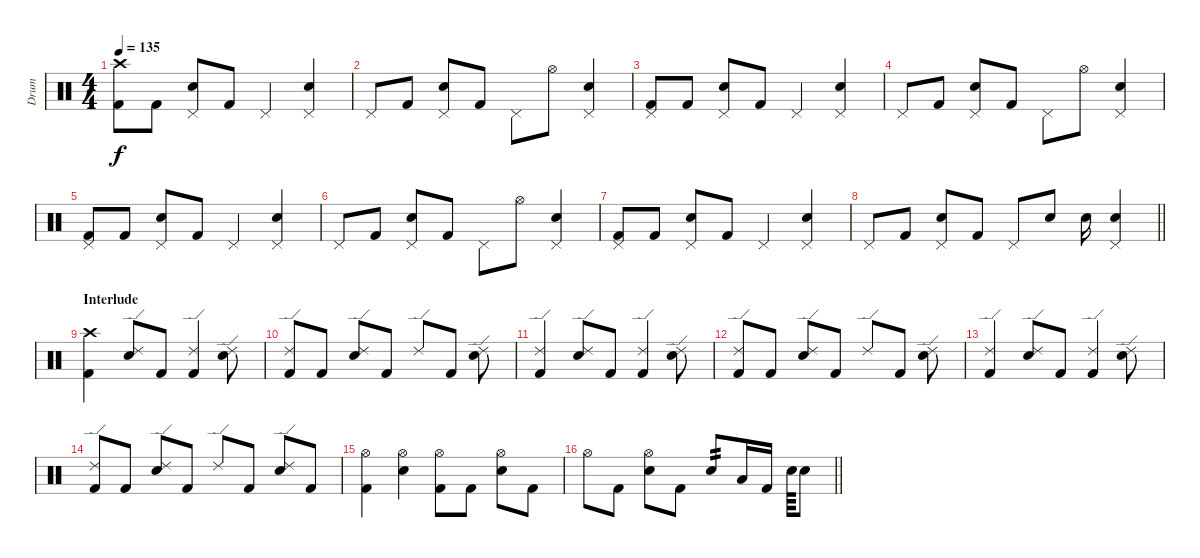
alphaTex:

\track ("Drum" "Drum") {instrument percussion bank 127}
\staff {score}
\articulation defaults
\ts (4 4)
\tempo 135
\clef neutral
\ks c
("Crash high (hit)" "Kick (hit) 2").8{dy f} "Kick (hit) 2".8 ("Pedal Hi-Hat (hit)" "Electric Snare (hit)").8 "Kick (hit) 2".8 "Pedal Hi-Hat (hit)".4 ("Pedal Hi-Hat (hit)" "Electric Snare (hit)").4 |
"Pedal Hi-Hat (hit)".8 "Kick (hit) 2".8 ("Pedal Hi-Hat (hit)" "Electric Snare (hit)").8 "Kick (hit) 2".8 "Pedal Hi-Hat (hit)".8 "Hi-Hat (open)".8 ("Pedal Hi-Hat (hit)" "Electric Snare (hit)").4 |
("Pedal Hi-Hat (hit)" "Kick (hit) 2").8 "Kick (hit) 2".8 ("Pedal Hi-Hat (hit)" "Electric Snare (hit)").8 "Kick (hit) 2".8 "Pedal Hi-Hat (hit)".4 ("Pedal Hi-Hat (hit)" "Electric Snare (hit)").4 |
"Pedal Hi-Hat (hit)".8 "Kick (hit) 2".8 ("Pedal Hi-Hat (hit)" "Electric Snare (hit)").8 "Kick (hit) 2".8 "Pedal Hi-Hat (hit)".8 "Hi-Hat (open)".8 ("Pedal Hi-Hat (hit)" "Electric Snare (hit)").4 |
("Pedal Hi-Hat (hit)" "Kick (hit) 2").8 "Kick (hit) 2".8 ("Pedal Hi-Hat (hit)" "Electric Snare (hit)").8 "Kick (hit) 2".8 "Pedal Hi-Hat (hit)".4 ("Pedal Hi-Hat (hit)" "Electric Snare (hit)").4 |
"Pedal Hi-Hat (hit)".8 "Kick (hit) 2".8 ("Pedal Hi-Hat (hit)" "Electric Snare (hit)").8 "Kick (hit) 2".8 "Pedal Hi-Hat (hit)".8 "Hi-Hat (open)".8 ("Pedal Hi-Hat (hit)" "Electric Snare (hit)").4 |
("Pedal Hi-Hat (hit)" "Kick (hit) 2").8 "Kick (hit) 2".8 ("Pedal Hi-Hat (hit)" "Electric Snare (hit)").8 "Kick (hit) 2".8 "Pedal Hi-Hat (hit)".4 ("Pedal Hi-Hat (hit)" "Electric Snare (hit)").4 |
\barLineRight lightlight "Pedal Hi-Hat (hit)".8 "Kick (hit) 2".8
("Pedal Hi-Hat (hit)" "Electric Snare (hit)").8 "Kick (hit) 2".8 "Pedal Hi-Hat (hit)".8 "Electric Snare (hit)".8 "Electric Snare (hit)".16 ("Pedal Hi-Hat (hit)" "Electric Snare (hit)").4 |
\section ("" "Interlude")
("Crash high (hit)" "Kick (hit) 2").4 ("Ride (edge) 2" "Electric Snare (hit)").8 "Kick (hit) 2".8 ("Ride (edge) 2" "Kick (hit) 2").4 ("Ride (edge) 2" "Electric Snare (hit)").8 |
("Ride (edge) 2" "Kick (hit) 2").8 "Kick (hit) 2".8 ("Ride (edge) 2" "Electric Snare (hit)").8 "Kick (hit) 2".8 "Ride (edge) 2".8 "Kick (hit) 2".8 ("Ride (edge) 2" "Electric Snare (hit)").8 |
("Ride (edge) 2" "Kick (hit) 2").4 ("Ride (edge) 2" "Electric Snare (hit)").8 "Kick (hit) 2".8 ("Ride (edge) 2" "Kick (hit) 2").4 ("Ride (edge) 2" "Electric Snare (hit)").8 |
("Ride (edge) 2" "Kick (hit) 2").8 "Kick (hit) 2".8 ("Ride (edge) 2" "Electric Snare (hit)").8 "Kick (hit) 2".8 "Ride (edge) 2".8 "Kick (hit) 2".8 ("Ride (edge) 2" "Electric Snare (hit)").8 |
("Ride (edge) 2" "Kick (hit) 2").4 ("Ride (edge) 2" "Electric Snare (hit)").8 "Kick (hit) 2".8 ("Ride (edge) 2" "Kick (hit) 2").4 ("Ride (edge) 2" "Electric Snare (hit)").8 |
("Ride (edge) 2" "Kick (hit) 2").8 "Kick (hit) 2".8 ("Ride (edge) 2" "Electric Snare (hit)").8 "Kick (hit) 2".8 "Ride (edge) 2".8 "Kick (hit) 2".8 ("Ride (edge) 2" "Electric Snare (hit)").8 "Kick (hit) 2".8 |
("Hi-Hat (open)" "Kick (hit) 2").4 ("Hi-Hat (open)" "Electric Snare (hit)").4 ("Hi-Hat (open)" "Kick (hit) 2").8 "Kick (hit) 2".8 ("Hi-Hat (open)" "Electric Snare (hit)").8 "Kick (hit) 2".8 |
\barLineRight lightlight "Hi-Hat (open)".8 "Kick (hit) 2".8
("Hi-Hat (open)" "Electric Snare (hit)").8 "Kick (hit) 2".8 "Electric Snare (hit)".8{tp 2} "Low Tom (hit)".16 "Kick (hit) 2".16 "Electric Snare (hit)".64 "Electric Snare (hit)".8
